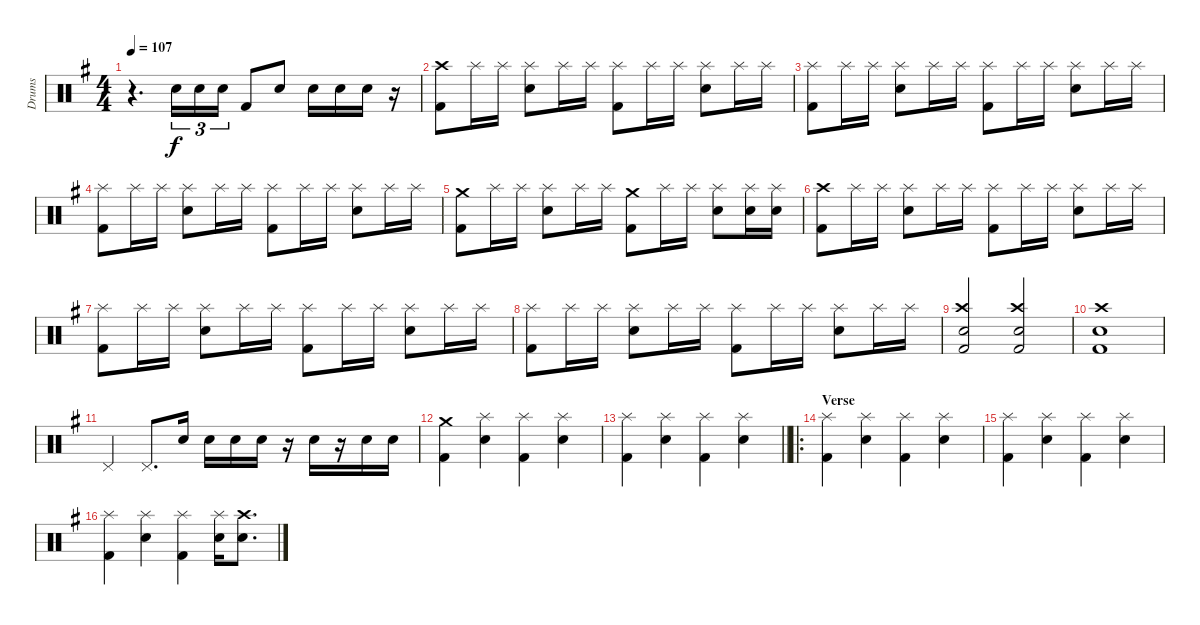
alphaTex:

\track ("Drums" "Drums") {instrument percussion}
\staff {score}
\articulation defaults
\ts (4 4)
\tempo 107
\clef neutral
\ks eminor
r.4{d dy f} "Electric Snare (hit)".16{tu (3 2)} "Electric Snare (hit)".16{tu (3 2)} "Electric Snare (hit)".16{tu (3 2)} "Kick (hit) 2".8 "Electric Snare (hit)".8 "Electric Snare (hit)".16 "Electric Snare (hit)".16 "Electric Snare (hit)".16 r.16 |
("Crash high (hit)" "Kick (hit) 2").8 "Splash (hit)".16 "Splash (hit)".16 ("Splash (hit)" "Snare (hit) 2").8 "Splash (hit)".16 "Splash (hit)".16 ("Splash (hit)" "Kick (hit) 2").8 "Splash (hit)".16 "Splash (hit)".16 ("Splash (hit)" "Snare (hit) 2").8 "Splash (hit)".16 "Splash (hit)".16 |
("Splash (hit)" "Kick (hit) 2").8 "Splash (hit)".16 "Splash (hit)".16 ("Splash (hit)" "Snare (hit) 2").8 "Splash (hit)".16 "Splash (hit)".16 ("Splash (hit)" "Kick (hit) 2").8 "Splash (hit)".16 "Splash (hit)".16 ("Splash (hit)" "Snare (hit) 2").8 "Splash (hit)".16 "Splash (hit)".16 |
("Splash (hit)" "Kick (hit) 2").8 "Splash (hit)".16 "Splash (hit)".16 ("Splash (hit)" "Snare (hit) 2").8 "Splash (hit)".16 "Splash (hit)".16 ("Splash (hit)" "Kick (hit) 2").8 "Splash (hit)".16 "Splash (hit)".16 ("Splash (hit)" "Snare (hit) 2").8 "Splash (hit)".16 "Splash (hit)".16 |
("Crash medium (hit)" "Kick (hit) 2").8 "Splash (hit)".16 "Splash (hit)".16 ("Splash (hit)" "Snare (hit) 2").8 "Splash (hit)".16 "Splash (hit)".16 ("Crash medium (hit)" "Kick (hit) 2").8 "Splash (hit)".16 "Splash (hit)".16 ("Splash (hit)" "Snare (hit) 2").8 ("Splash (hit)" "Snare (hit) 2").16 ("Splash (hit)" "Snare (hit) 2").16 |
("Crash high (hit)" "Kick (hit) 2").8 "Splash (hit)".16 "Splash (hit)".16 ("Splash (hit)" "Snare (hit) 2").8 "Splash (hit)".16 "Splash (hit)".16 ("Splash (hit)" "Kick (hit) 2").8 "Splash (hit)".16 "Splash (hit)".16 ("Splash (hit)" "Snare (hit) 2").8 "Splash (hit)".16 "Splash (hit)".16 |
("Splash (hit)" "Kick (hit) 2").8 "Splash (hit)".16 "Splash (hit)".16 ("Splash (hit)" "Snare (hit) 2").8 "Splash (hit)".16 "Splash (hit)".16 ("Splash (hit)" "Kick (hit) 2").8 "Splash (hit)".16 "Splash (hit)".16 ("Splash (hit)" "Snare (hit) 2").8 "Splash (hit)".16 "Splash (hit)".16 |
("Splash (hit)" "Kick (hit) 2").8 "Splash (hit)".16 "Splash (hit)".16 ("Splash (hit)" "Snare (hit) 2").8 "Splash (hit)".16 "Splash (hit)".16 ("Splash (hit)" "Kick (hit) 2").8 "Splash (hit)".16 "Splash (hit)".16 ("Splash (hit)" "Snare (hit) 2").8 "Splash (hit)".16 "Splash (hit)".16 |
("Crash high (hit)" "Snare (hit) 2" "Kick (hit) 2").2 ("Crash high (hit)" "Snare (hit) 2" "Kick (hit) 2").2 |
("Crash high (hit)" "Snare (hit) 2" "Kick (hit) 2").1 |
"Pedal Hi-Hat (hit)".4 "Pedal Hi-Hat (hit)".8{d} "Snare (hit) 2".16 "Snare (hit) 2".16 "Snare (hit) 2".16 "Snare (hit) 2".16 r.16 "Snare (hit) 2".16 r.16 "Snare (hit) 2".16 "Snare (hit) 2".16 |
("Crash medium (hit)" "Kick (hit) 2").4 ("Splash (hit)" "Snare (hit) 2").4 ("Splash (hit)" "Kick (hit) 2").4 ("Splash (hit)" "Snare (hit) 2").4 |
\barLineRight lightlight
("Splash (hit)" "Kick (hit) 2").4 ("Splash (hit)" "Snare (hit) 2").4 ("Splash (hit)" "Kick (hit) 2").4 ("Splash (hit)" "Snare (hit) 2").4 |
\ro
\section ("" "Verse")
("Splash (hit)" "Kick (hit) 2").4 ("Splash (hit)" "Snare (hit) 2").4 ("Splash (hit)" "Kick (hit) 2").4 ("Splash (hit)" "Snare (hit) 2").4 |
("Splash (hit)" "Kick (hit) 2").4 ("Splash (hit)" "Snare (hit) 2").4 ("Splash (hit)" "Kick (hit) 2").4 ("Splash (hit)" "Snare (hit) 2").4 |
("Splash (hit)" "Kick (hit) 2").4 ("Splash (hit)" "Snare (hit) 2").4 ("Splash (hit)" "Kick (hit) 2").4 ("Splash (hit)" "Snare (hit) 2").16 ("Crash high (hit)" "Snare (hit) 2").8{d}
